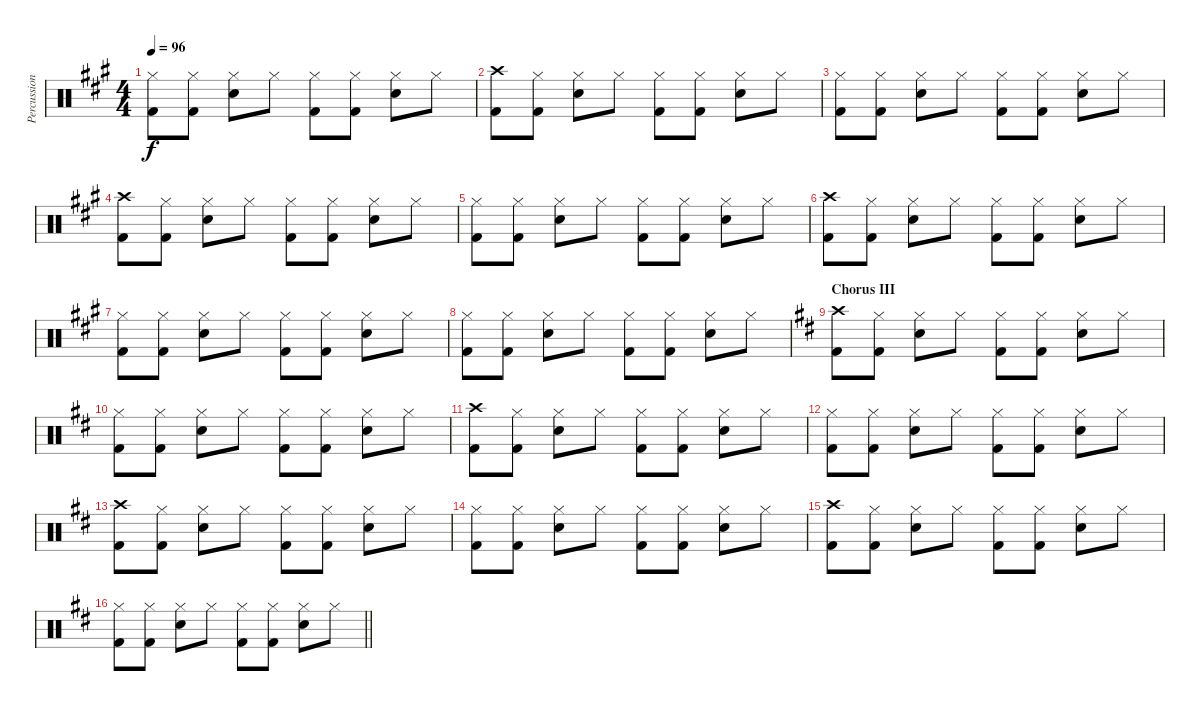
\track ("Percussions" "Percussion") {instrument percussion}
\staff {score}
\articulation defaults
\ts (4 4)
\tempo 96
\clef neutral
\ks a
("Hi-Hat (closed)" "Kick (hit) 2").8{dy f} ("Hi-Hat (closed)" "Kick (hit) 2").8 ("Hi-Hat (closed)" "Snare (hit) 2").8 "Hi-Hat (closed)".8 ("Hi-Hat (closed)" "Kick (hit) 2").8 ("Hi-Hat (closed)" "Kick (hit) 2").8 ("Hi-Hat (closed)" "Snare (hit) 2").8 "Hi-Hat (closed)".8 |
("Crash high (hit)" "Kick (hit) 2").8 ("Hi-Hat (closed)" "Kick (hit) 2").8 ("Hi-Hat (closed)" "Snare (hit) 2").8 "Hi-Hat (closed)".8 ("Hi-Hat (closed)" "Kick (hit) 2").8 ("Hi-Hat (closed)" "Kick (hit) 2").8 ("Hi-Hat (closed)" "Snare (hit) 2").8 "Hi-Hat (closed)".8 |
("Hi-Hat (closed)" "Kick (hit) 2").8 ("Hi-Hat (closed)" "Kick (hit) 2").8 ("Hi-Hat (closed)" "Snare (hit) 2").8 "Hi-Hat (closed)".8 ("Hi-Hat (closed)" "Kick (hit) 2").8 ("Hi-Hat (closed)" "Kick (hit) 2").8 ("Hi-Hat (closed)" "Snare (hit) 2").8 "Hi-Hat (closed)".8 |
("Crash high (hit)" "Kick (hit) 2").8 ("Hi-Hat (closed)" "Kick (hit) 2").8 ("Hi-Hat (closed)" "Snare (hit) 2").8 "Hi-Hat (closed)".8 ("Hi-Hat (closed)" "Kick (hit) 2").8 ("Hi-Hat (closed)" "Kick (hit) 2").8 ("Hi-Hat (closed)" "Snare (hit) 2").8 "Hi-Hat (closed)".8 |
("Hi-Hat (closed)" "Kick (hit) 2").8 ("Hi-Hat (closed)" "Kick (hit) 2").8 ("Hi-Hat (closed)" "Snare (hit) 2").8 "Hi-Hat (closed)".8 ("Hi-Hat (closed)" "Kick (hit) 2").8 ("Hi-Hat (closed)" "Kick (hit) 2").8 ("Hi-Hat (closed)" "Snare (hit) 2").8 "Hi-Hat (closed)".8 |
("Crash high (hit)" "Kick (hit) 2").8 ("Hi-Hat (closed)" "Kick (hit) 2").8 ("Hi-Hat (closed)" "Snare (hit) 2").8 "Hi-Hat (closed)".8 ("Hi-Hat (closed)" "Kick (hit) 2").8 ("Hi-Hat (closed)" "Kick (hit) 2").8 ("Hi-Hat (closed)" "Snare (hit) 2").8 "Hi-Hat (closed)".8 |
("Hi-Hat (closed)" "Kick (hit) 2").8 ("Hi-Hat (closed)" "Kick (hit) 2").8 ("Hi-Hat (closed)" "Snare (hit) 2").8 "Hi-Hat (closed)".8 ("Hi-Hat (closed)" "Kick (hit) 2").8 ("Hi-Hat (closed)" "Kick (hit) 2").8 ("Hi-Hat (closed)" "Snare (hit) 2").8 "Hi-Hat (closed)".8 |
("Hi-Hat (closed)" "Kick (hit) 2").8 ("Hi-Hat (closed)" "Kick (hit) 2").8 ("Hi-Hat (closed)" "Snare (hit) 2").8 "Hi-Hat (closed)".8 ("Hi-Hat (closed)" "Kick (hit) 2").8 ("Hi-Hat (closed)" "Kick (hit) 2").8 ("Hi-Hat (closed)" "Snare (hit) 2").8 "Hi-Hat (closed)".8 |
\section ("" "Chorus III")
\ks d
("Crash high (hit)" "Kick (hit) 2").8 ("Hi-Hat (closed)" "Kick (hit) 2").8 ("Hi-Hat (closed)" "Snare (hit) 2").8 "Hi-Hat (closed)".8 ("Hi-Hat (closed)" "Kick (hit) 2").8 ("Hi-Hat (closed)" "Kick (hit) 2").8 ("Hi-Hat (closed)" "Snare (hit) 2").8 "Hi-Hat (closed)".8 |
("Hi-Hat (closed)" "Kick (hit) 2").8 ("Hi-Hat (closed)" "Kick (hit) 2").8 ("Hi-Hat (closed)" "Snare (hit) 2").8 "Hi-Hat (closed)".8 ("Hi-Hat (closed)" "Kick (hit) 2").8 ("Hi-Hat (closed)" "Kick (hit) 2").8 ("Hi-Hat (closed)" "Snare (hit) 2").8 "Hi-Hat (closed)".8 |
("Crash high (hit)" "Kick (hit) 2").8 ("Hi-Hat (closed)" "Kick (hit) 2").8 ("Hi-Hat (closed)" "Snare (hit) 2").8 "Hi-Hat (closed)".8 ("Hi-Hat (closed)" "Kick (hit) 2").8 ("Hi-Hat (closed)" "Kick (hit) 2").8 ("Hi-Hat (closed)" "Snare (hit) 2").8 "Hi-Hat (closed)".8 |
("Hi-Hat (closed)" "Kick (hit) 2").8 ("Hi-Hat (closed)" "Kick (hit) 2").8 ("Hi-Hat (closed)" "Snare (hit) 2").8 "Hi-Hat (closed)".8 ("Hi-Hat (closed)" "Kick (hit) 2").8 ("Hi-Hat (closed)" "Kick (hit) 2").8 ("Hi-Hat (closed)" "Snare (hit) 2").8 "Hi-Hat (closed)".8 |
("Crash high (hit)" "Kick (hit) 2").8 ("Hi-Hat (closed)" "Kick (hit) 2").8 ("Hi-Hat (closed)" "Snare (hit) 2").8 "Hi-Hat (closed)".8 ("Hi-Hat (closed)" "Kick (hit) 2").8 ("Hi-Hat (closed)" "Kick (hit) 2").8 ("Hi-Hat (closed)" "Snare (hit) 2").8 "Hi-Hat (closed)".8 |
("Hi-Hat (closed)" "Kick (hit) 2").8 ("Hi-Hat (closed)" "Kick (hit) 2").8 ("Hi-Hat (closed)" "Snare (hit) 2").8 "Hi-Hat (closed)".8 ("Hi-Hat (closed)" "Kick (hit) 2").8 ("Hi-Hat (closed)" "Kick (hit) 2").8 ("Hi-Hat (closed)" "Snare (hit) 2").8 "Hi-Hat (closed)".8 |
("Crash high (hit)" "Kick (hit) 2").8 ("Hi-Hat (closed)" "Kick (hit) 2").8 ("Hi-Hat (closed)" "Snare (hit) 2").8 "Hi-Hat (closed)".8 ("Hi-Hat (closed)" "Kick (hit) 2").8 ("Hi-Hat (closed)" "Kick (hit) 2").8 ("Hi-Hat (closed)" "Snare (hit) 2").8 "Hi-Hat (closed)".8 |
\barLineRight lightlight
("Hi-Hat (closed)" "Kick (hit) 2").8 ("Hi-Hat (closed)" "Kick (hit) 2").8 ("Hi-Hat (closed)" "Snare (hit) 2").8 "Hi-Hat (closed)".8 ("Hi-Hat (closed)" "Kick (hit) 2").8 ("Hi-Hat (closed)" "Kick (hit) 2").8 ("Hi-Hat (closed)" "Snare (hit) 2").8 "Hi-Hat (closed)".8
